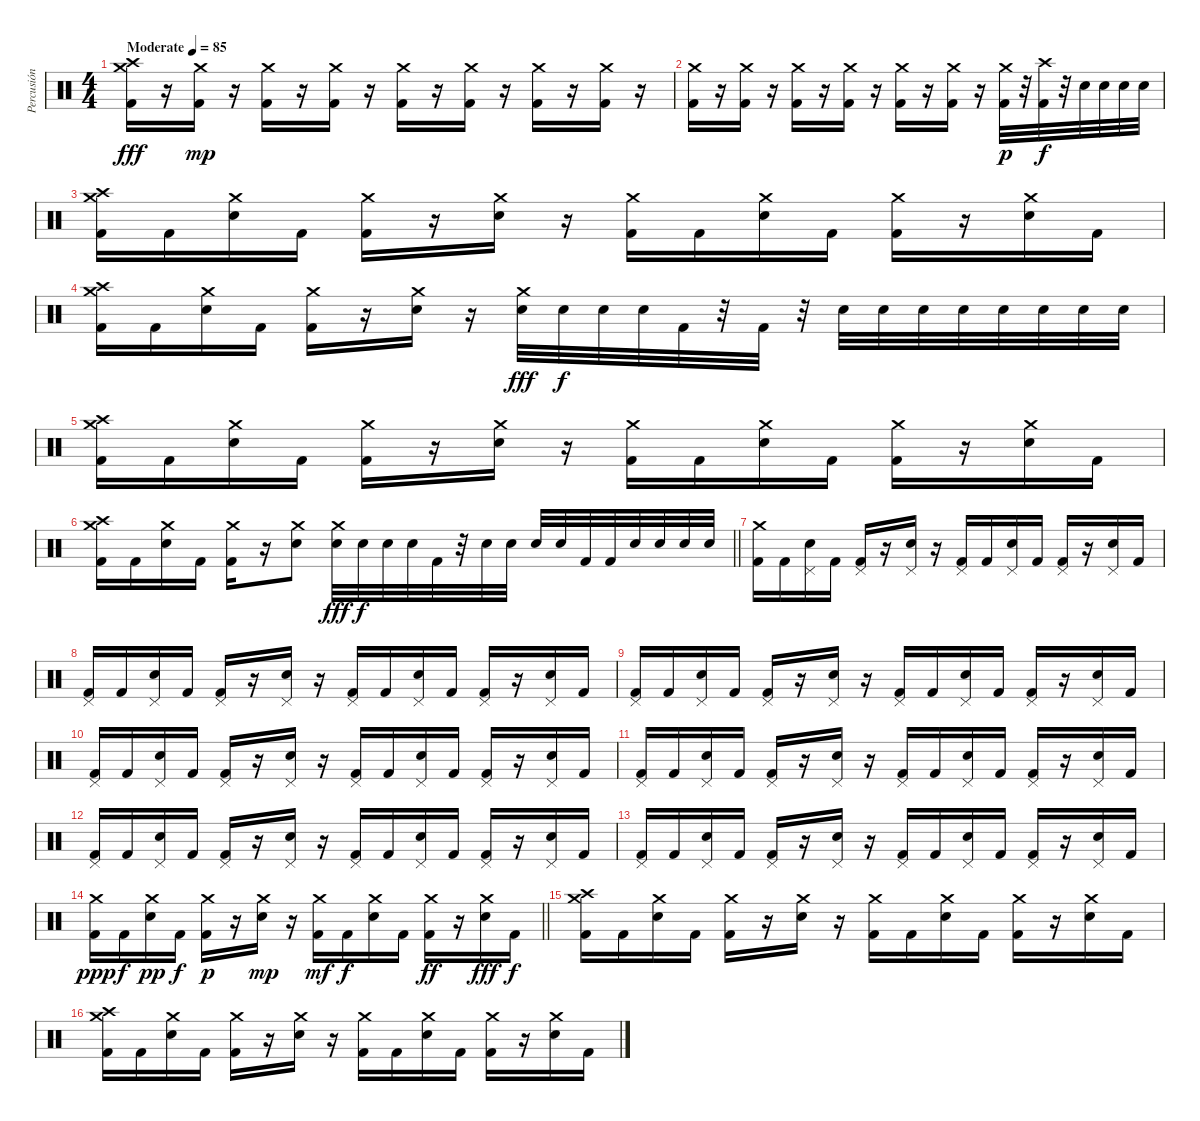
\track ("Percusión" "Percusión") {instrument percussion}
\staff {score}
\articulation defaults
\ts (4 4)
\tempo (85 "Moderate")
\clef neutral
\ks c
("Crash high (hit)" "Crash medium (hit)" "Kick (hit) 2").16{dy fff} r.16 ("Crash medium (hit)" "Kick (hit) 2").16{dy mp} r.16 ("Crash medium (hit)" "Kick (hit) 2").16 r.16 ("Crash medium (hit)" "Kick (hit) 2").16 r.16 ("Crash medium (hit)" "Kick (hit) 2").16 r.16 ("Crash medium (hit)" "Kick (hit) 2").16 r.16 ("Crash medium (hit)" "Kick (hit) 2").16 r.16 ("Crash medium (hit)" "Kick (hit) 2").16 r.16 |
("Crash medium (hit)" "Kick (hit) 2").16 r.16 ("Crash medium (hit)" "Kick (hit) 2").16 r.16 ("Crash medium (hit)" "Kick (hit) 2").16 r.16 ("Crash medium (hit)" "Kick (hit) 2").16 r.16 ("Crash medium (hit)" "Kick (hit) 2").16 r.16 ("Crash medium (hit)" "Kick (hit) 2").16 r.16 ("Crash medium (hit)" "Kick (hit) 2").32{dy p} r.32 ("Crash high (hit)" "Kick (hit) 2").32{dy f} r.32 "Electric Snare (hit)".32 "Electric Snare (hit)".32 "Electric Snare (hit)".32 "Electric Snare (hit)".32 |
("Crash high (hit)" "Crash medium (hit)" "Kick (hit) 2").16 "Kick (hit) 2".16 ("Crash medium (hit)" "Electric Snare (hit)").16 "Kick (hit) 2".16 ("Crash medium (hit)" "Kick (hit) 2").16 r.16 ("Crash medium (hit)" "Electric Snare (hit)").16 r.16 ("Crash medium (hit)" "Kick (hit) 2").16 "Kick (hit) 2".16 ("Crash medium (hit)" "Electric Snare (hit)").16 "Kick (hit) 2".16 ("Crash medium (hit)" "Kick (hit) 2").16 r.16 ("Crash medium (hit)" "Electric Snare (hit)").16 "Kick (hit) 2".16 |
("Crash high (hit)" "Crash medium (hit)" "Kick (hit) 2").16 "Kick (hit) 2".16 ("Crash medium (hit)" "Electric Snare (hit)").16 "Kick (hit) 2".16 ("Crash medium (hit)" "Kick (hit) 2").16 r.16 ("Crash medium (hit)" "Electric Snare (hit)").16 r.16 ("Crash medium (hit)" "Electric Snare (hit)").32{dy fff} "Electric Snare (hit)".32{dy f} "Electric Snare (hit)".32 "Electric Snare (hit)".32 "Kick (hit) 2".32 r.32 "Kick (hit) 2".32 r.32 "Electric Snare (hit)".32 "Electric Snare (hit)".32 "Electric Snare (hit)".32 "Electric Snare (hit)".32 "Electric Snare (hit)".32 "Electric Snare (hit)".32 "Electric Snare (hit)".32 "Electric Snare (hit)".32 |
("Crash high (hit)" "Crash medium (hit)" "Kick (hit) 2").16 "Kick (hit) 2".16 ("Crash medium (hit)" "Electric Snare (hit)").16 "Kick (hit) 2".16 ("Crash medium (hit)" "Kick (hit) 2").16 r.16 ("Crash medium (hit)" "Electric Snare (hit)").16 r.16 ("Crash medium (hit)" "Kick (hit) 2").16 "Kick (hit) 2".16 ("Crash medium (hit)" "Electric Snare (hit)").16 "Kick (hit) 2".16 ("Crash medium (hit)" "Kick (hit) 2").16 r.16 ("Crash medium (hit)" "Electric Snare (hit)").16 "Kick (hit) 2".16 |
\barLineRight lightlight
("Crash high (hit)" "Crash medium (hit)" "Kick (hit) 2").16 "Kick (hit) 2".16 ("Crash medium (hit)" "Electric Snare (hit)").16 "Kick (hit) 2".16 ("Crash medium (hit)" "Kick (hit) 2").16 r.16 ("Crash medium (hit)" "Electric Snare (hit)").8 ("Crash medium (hit)" "Electric Snare (hit)").32{dy fff} "Electric Snare (hit)".32{dy f} "Electric Snare (hit)".32 "Electric Snare (hit)".32 "Kick (hit) 2".32 r.32 "Electric Snare (hit)".32 "Electric Snare (hit)".32 "Electric Snare (hit)".32 "Electric Snare (hit)".32 "Kick (hit) 2".32 "Kick (hit) 2".32 "Electric Snare (hit)".32 "Electric Snare (hit)".32 "Electric Snare (hit)".32 "Electric Snare (hit)".32 |
("Crash medium (hit)" "Kick (hit) 2").16 "Kick (hit) 2".16 ("Pedal Hi-Hat (hit)" "Electric Snare (hit)").16 "Kick (hit) 2".16 ("Pedal Hi-Hat (hit)" "Kick (hit) 2").16 r.16 ("Pedal Hi-Hat (hit)" "Electric Snare (hit)").16 r.16 ("Pedal Hi-Hat (hit)" "Kick (hit) 2").16 "Kick (hit) 2".16 ("Pedal Hi-Hat (hit)" "Electric Snare (hit)").16 "Kick (hit) 2".16 ("Pedal Hi-Hat (hit)" "Kick (hit) 2").16 r.16 ("Pedal Hi-Hat (hit)" "Electric Snare (hit)").16 "Kick (hit) 2".16 |
("Pedal Hi-Hat (hit)" "Kick (hit) 2").16 "Kick (hit) 2".16 ("Pedal Hi-Hat (hit)" "Electric Snare (hit)").16 "Kick (hit) 2".16 ("Pedal Hi-Hat (hit)" "Kick (hit) 2").16 r.16 ("Pedal Hi-Hat (hit)" "Electric Snare (hit)").16 r.16 ("Pedal Hi-Hat (hit)" "Kick (hit) 2").16 "Kick (hit) 2".16 ("Pedal Hi-Hat (hit)" "Electric Snare (hit)").16 "Kick (hit) 2".16 ("Pedal Hi-Hat (hit)" "Kick (hit) 2").16 r.16 ("Pedal Hi-Hat (hit)" "Electric Snare (hit)").16 "Kick (hit) 2".16 |
("Pedal Hi-Hat (hit)" "Kick (hit) 2").16 "Kick (hit) 2".16 ("Pedal Hi-Hat (hit)" "Electric Snare (hit)").16 "Kick (hit) 2".16 ("Pedal Hi-Hat (hit)" "Kick (hit) 2").16 r.16 ("Pedal Hi-Hat (hit)" "Electric Snare (hit)").16 r.16 ("Pedal Hi-Hat (hit)" "Kick (hit) 2").16 "Kick (hit) 2".16 ("Pedal Hi-Hat (hit)" "Electric Snare (hit)").16 "Kick (hit) 2".16 ("Pedal Hi-Hat (hit)" "Kick (hit) 2").16 r.16 ("Pedal Hi-Hat (hit)" "Electric Snare (hit)").16 "Kick (hit) 2".16 |
("Pedal Hi-Hat (hit)" "Kick (hit) 2").16 "Kick (hit) 2".16 ("Pedal Hi-Hat (hit)" "Electric Snare (hit)").16 "Kick (hit) 2".16 ("Pedal Hi-Hat (hit)" "Kick (hit) 2").16 r.16 ("Pedal Hi-Hat (hit)" "Electric Snare (hit)").16 r.16 ("Pedal Hi-Hat (hit)" "Kick (hit) 2").16 "Kick (hit) 2".16 ("Pedal Hi-Hat (hit)" "Electric Snare (hit)").16 "Kick (hit) 2".16 ("Pedal Hi-Hat (hit)" "Kick (hit) 2").16 r.16 ("Pedal Hi-Hat (hit)" "Electric Snare (hit)").16 "Kick (hit) 2".16 |
("Pedal Hi-Hat (hit)" "Kick (hit) 2").16 "Kick (hit) 2".16 ("Pedal Hi-Hat (hit)" "Electric Snare (hit)").16 "Kick (hit) 2".16 ("Pedal Hi-Hat (hit)" "Kick (hit) 2").16 r.16 ("Pedal Hi-Hat (hit)" "Electric Snare (hit)").16 r.16 ("Pedal Hi-Hat (hit)" "Kick (hit) 2").16 "Kick (hit) 2".16 ("Pedal Hi-Hat (hit)" "Electric Snare (hit)").16 "Kick (hit) 2".16 ("Pedal Hi-Hat (hit)" "Kick (hit) 2").16 r.16 ("Pedal Hi-Hat (hit)" "Electric Snare (hit)").16 "Kick (hit) 2".16 |
("Pedal Hi-Hat (hit)" "Kick (hit) 2").16 "Kick (hit) 2".16 ("Pedal Hi-Hat (hit)" "Electric Snare (hit)").16 "Kick (hit) 2".16 ("Pedal Hi-Hat (hit)" "Kick (hit) 2").16 r.16 ("Pedal Hi-Hat (hit)" "Electric Snare (hit)").16 r.16 ("Pedal Hi-Hat (hit)" "Kick (hit) 2").16 "Kick (hit) 2".16 ("Pedal Hi-Hat (hit)" "Electric Snare (hit)").16 "Kick (hit) 2".16 ("Pedal Hi-Hat (hit)" "Kick (hit) 2").16 r.16 ("Pedal Hi-Hat (hit)" "Electric Snare (hit)").16 "Kick (hit) 2".16 |
("Pedal Hi-Hat (hit)" "Kick (hit) 2").16 "Kick (hit) 2".16 ("Pedal Hi-Hat (hit)" "Electric Snare (hit)").16 "Kick (hit) 2".16 ("Pedal Hi-Hat (hit)" "Kick (hit) 2").16 r.16 ("Pedal Hi-Hat (hit)" "Electric Snare (hit)").16 r.16 ("Pedal Hi-Hat (hit)" "Kick (hit) 2").16 "Kick (hit) 2".16 ("Pedal Hi-Hat (hit)" "Electric Snare (hit)").16 "Kick (hit) 2".16 ("Pedal Hi-Hat (hit)" "Kick (hit) 2").16 r.16 ("Pedal Hi-Hat (hit)" "Electric Snare (hit)").16 "Kick (hit) 2".16 |
\barLineRight lightlight
("Crash medium (hit)" "Kick (hit) 2").16{dy ppp} "Kick (hit) 2".16{dy f} ("Crash medium (hit)" "Electric Snare (hit)").16{dy pp} "Kick (hit) 2".16{dy f} ("Crash medium (hit)" "Kick (hit) 2").16{dy p} r.16 ("Crash medium (hit)" "Electric Snare (hit)").16{dy mp} r.16 ("Crash medium (hit)" "Kick (hit) 2").16{dy mf} "Kick (hit) 2".16{dy f} ("Crash medium (hit)" "Electric Snare (hit)").16 "Kick (hit) 2".16 ("Crash medium (hit)" "Kick (hit) 2").16{dy ff} r.16 ("Crash medium (hit)" "Electric Snare (hit)").16{dy fff} "Kick (hit) 2".16{dy f} |
("Crash high (hit)" "Crash medium (hit)" "Kick (hit) 2").16 "Kick (hit) 2".16 ("Crash medium (hit)" "Electric Snare (hit)").16 "Kick (hit) 2".16 ("Crash medium (hit)" "Kick (hit) 2").16 r.16 ("Crash medium (hit)" "Electric Snare (hit)").16 r.16 ("Crash medium (hit)" "Kick (hit) 2").16 "Kick (hit) 2".16 ("Crash medium (hit)" "Electric Snare (hit)").16 "Kick (hit) 2".16 ("Crash medium (hit)" "Kick (hit) 2").16 r.16 ("Crash medium (hit)" "Electric Snare (hit)").16 "Kick (hit) 2".16 |
("Crash high (hit)" "Crash medium (hit)" "Kick (hit) 2").16 "Kick (hit) 2".16 ("Crash medium (hit)" "Electric Snare (hit)").16 "Kick (hit) 2".16 ("Crash medium (hit)" "Kick (hit) 2").16 r.16 ("Crash medium (hit)" "Electric Snare (hit)").16 r.16 ("Crash medium (hit)" "Kick (hit) 2").16 "Kick (hit) 2".16 ("Crash medium (hit)" "Electric Snare (hit)").16 "Kick (hit) 2".16 ("Crash medium (hit)" "Kick (hit) 2").16 r.16 ("Crash medium (hit)" "Electric Snare (hit)").16 "Kick (hit) 2".16
